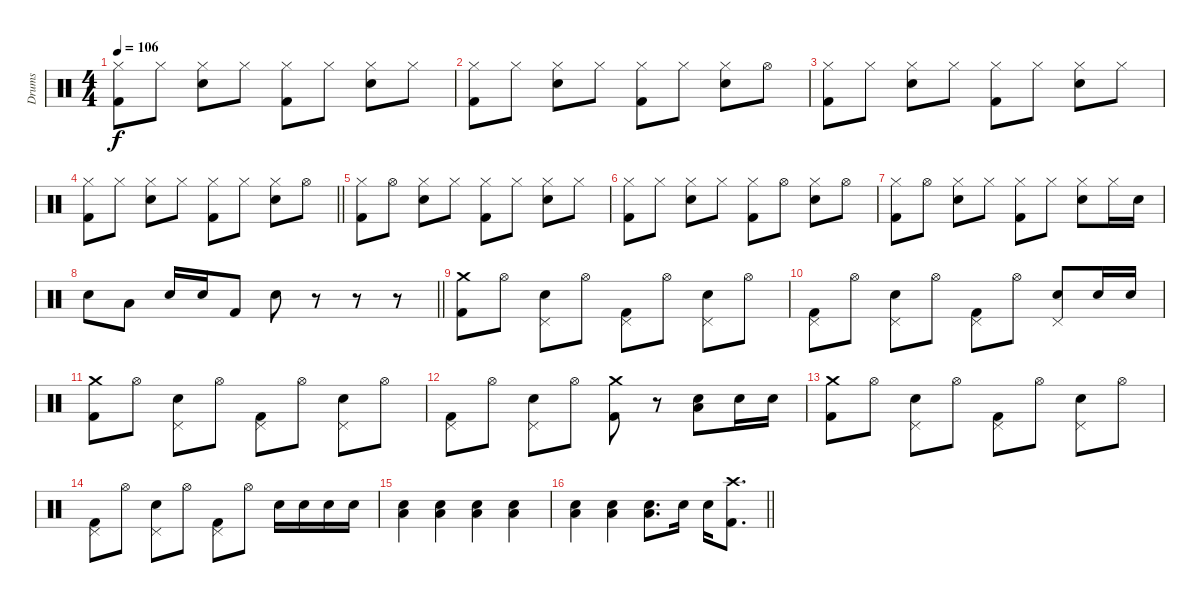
\track ("Drums" "Drums") {instrument percussion}
\staff {score}
\articulation defaults
\ts (4 4)
\tempo 106
\clef neutral
\ks c
("Hi-Hat (closed)" "Kick (hit) 2").8{dy f} "Hi-Hat (closed)".8 ("Hi-Hat (closed)" "Electric Snare (hit)").8 "Hi-Hat (closed)".8 ("Hi-Hat (closed)" "Kick (hit) 2").8 "Hi-Hat (closed)".8 ("Hi-Hat (closed)" "Electric Snare (hit)").8 "Hi-Hat (closed)".8 |
("Hi-Hat (closed)" "Kick (hit) 2").8 "Hi-Hat (closed)".8 ("Hi-Hat (closed)" "Electric Snare (hit)").8 "Hi-Hat (closed)".8 ("Hi-Hat (closed)" "Kick (hit) 2").8 "Hi-Hat (closed)".8 ("Hi-Hat (closed)" "Electric Snare (hit)").8 "Hi-Hat (open)".8 |
("Hi-Hat (closed)" "Kick (hit) 2").8 "Hi-Hat (closed)".8 ("Hi-Hat (closed)" "Electric Snare (hit)").8 "Hi-Hat (closed)".8 ("Hi-Hat (closed)" "Kick (hit) 2").8 "Hi-Hat (closed)".8 ("Hi-Hat (closed)" "Electric Snare (hit)").8 "Hi-Hat (closed)".8 |
\barLineRight lightlight
("Hi-Hat (closed)" "Kick (hit) 2").8 "Hi-Hat (closed)".8 ("Hi-Hat (closed)" "Electric Snare (hit)").8 "Hi-Hat (closed)".8 ("Hi-Hat (closed)" "Kick (hit) 2").8 "Hi-Hat (closed)".8 ("Hi-Hat (closed)" "Electric Snare (hit)").8 "Hi-Hat (open)".8 |
("Hi-Hat (closed)" "Kick (hit) 2").8 "Hi-Hat (open)".8 ("Hi-Hat (closed)" "Electric Snare (hit)").8 "Hi-Hat (closed)".8 ("Hi-Hat (closed)" "Kick (hit) 2").8 "Hi-Hat (closed)".8 ("Hi-Hat (closed)" "Electric Snare (hit)").8 "Hi-Hat (closed)".8 |
("Hi-Hat (closed)" "Kick (hit) 2").8 "Hi-Hat (closed)".8 ("Hi-Hat (closed)" "Electric Snare (hit)").8 "Hi-Hat (closed)".8 ("Hi-Hat (closed)" "Kick (hit) 2").8 "Hi-Hat (open)".8 ("Hi-Hat (closed)" "Electric Snare (hit)").8 "Hi-Hat (open)".8 |
("Hi-Hat (closed)" "Kick (hit) 2").8 "Hi-Hat (open)".8 ("Hi-Hat (closed)" "Electric Snare (hit)").8 "Hi-Hat (closed)".8 ("Hi-Hat (closed)" "Kick (hit) 2").8 "Hi-Hat (closed)".8 ("Hi-Hat (closed)" "Electric Snare (hit)").8 "Hi-Hat (closed)".16 "Electric Snare (hit)".16 |
\barLineRight lightlight "Electric Snare (hit)".8 "Low Tom (hit)".8 "Electric Snare (hit)".16 "Electric Snare (hit)".16 "Kick (hit) 2".8 "Electric Snare (hit)".8
r.8 r.8 r.8 |
("Crash medium (hit)" "Kick (hit) 2").8 "Hi-Hat (open)".8 ("Pedal Hi-Hat (hit)" "Electric Snare (hit)").8 "Hi-Hat (open)".8 ("Pedal Hi-Hat (hit)" "Kick (hit) 2").8 "Hi-Hat (open)".8 ("Pedal Hi-Hat (hit)" "Electric Snare (hit)").8 "Hi-Hat (open)".8 |
("Pedal Hi-Hat (hit)" "Kick (hit) 2").8 "Hi-Hat (open)".8 ("Pedal Hi-Hat (hit)" "Electric Snare (hit)").8 "Hi-Hat (open)".8 ("Pedal Hi-Hat (hit)" "Kick (hit) 2").8 "Hi-Hat (open)".8 ("Pedal Hi-Hat (hit)" "Electric Snare (hit)").8 "Electric Snare (hit)".16 "Electric Snare (hit)".16 |
("Crash medium (hit)" "Kick (hit) 2").8 "Hi-Hat (open)".8 ("Pedal Hi-Hat (hit)" "Electric Snare (hit)").8 "Hi-Hat (open)".8 ("Pedal Hi-Hat (hit)" "Kick (hit) 2").8 "Hi-Hat (open)".8 ("Pedal Hi-Hat (hit)" "Electric Snare (hit)").8 "Hi-Hat (open)".8 |
("Pedal Hi-Hat (hit)" "Kick (hit) 2").8 "Hi-Hat (open)".8 ("Pedal Hi-Hat (hit)" "Electric Snare (hit)").8 "Hi-Hat (open)".8 ("Crash medium (hit)" "Kick (hit) 2").8 r.8 ("Electric Snare (hit)" "Low Floor Tom (hit)").8 "Electric Snare (hit)".16 "Electric Snare (hit)".16 |
("Crash medium (hit)" "Kick (hit) 2").8 "Hi-Hat (open)".8 ("Pedal Hi-Hat (hit)" "Electric Snare (hit)").8 "Hi-Hat (open)".8 ("Pedal Hi-Hat (hit)" "Kick (hit) 2").8 "Hi-Hat (open)".8 ("Pedal Hi-Hat (hit)" "Electric Snare (hit)").8 "Hi-Hat (open)".8 |
("Pedal Hi-Hat (hit)" "Kick (hit) 2").8 "Hi-Hat (open)".8 ("Pedal Hi-Hat (hit)" "Electric Snare (hit)").8 "Hi-Hat (open)".8 ("Pedal Hi-Hat (hit)" "Kick (hit) 2").8 "Hi-Hat (open)".8 "Electric Snare (hit)".16 "Electric Snare (hit)".16 "Electric Snare (hit)".16 "Electric Snare (hit)".16 |
("Electric Snare (hit)" "Low Floor Tom (hit)").4 ("Electric Snare (hit)" "Low Floor Tom (hit)").4 ("Electric Snare (hit)" "Low Floor Tom (hit)").4 ("Electric Snare (hit)" "Low Floor Tom (hit)").4 |
\barLineRight lightlight
("Electric Snare (hit)" "Low Floor Tom (hit)").4 ("Electric Snare (hit)" "Low Floor Tom (hit)").4 ("Electric Snare (hit)" "Low Floor Tom (hit)").8{d} "Electric Snare (hit)".16 "Electric Snare (hit)".16 ("Crash high (hit)" "Kick (hit) 2").8{d}
